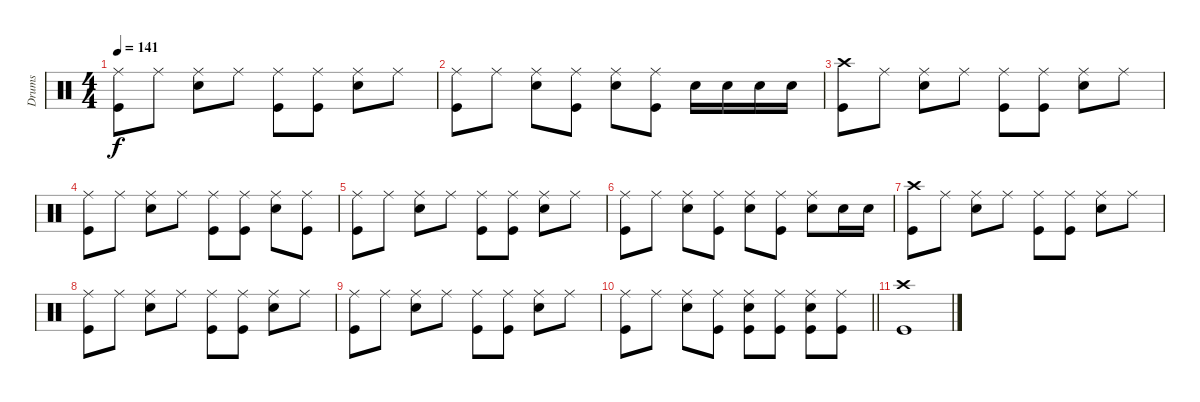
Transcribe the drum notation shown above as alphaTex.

\track ("Drums" "Drums") {instrument percussion}
\staff {score}
\articulation defaults
\ts (4 4)
\tempo 141
\clef neutral
\ks c
("Ride (middle)" "Kick (hit)").8{dy f} "Ride (middle)".8 ("Ride (middle)" "Snare (hit) 2").8 "Ride (middle)".8 ("Ride (middle)" "Kick (hit)").8 ("Ride (middle)" "Kick (hit)").8 ("Ride (middle)" "Snare (hit) 2").8 "Ride (middle)".8 |
("Ride (middle)" "Kick (hit)").8 "Ride (middle)".8 ("Ride (middle)" "Snare (hit) 2").8 ("Ride (middle)" "Kick (hit)").8 ("Ride (middle)" "Snare (hit) 2").8 ("Ride (middle)" "Kick (hit)").8 "Snare (hit) 2".16 "Snare (hit) 2".16 "Snare (hit) 2".16 "Snare (hit) 2".16 |
("Crash high (hit)" "Kick (hit)").8 "Ride (middle)".8 ("Ride (middle)" "Snare (hit) 2").8 "Ride (middle)".8 ("Ride (middle)" "Kick (hit)").8 ("Ride (middle)" "Kick (hit)").8 ("Ride (middle)" "Snare (hit) 2").8 "Ride (middle)".8 |
("Ride (middle)" "Kick (hit)").8 "Ride (middle)".8 ("Ride (middle)" "Snare (hit) 2").8 "Ride (middle)".8 ("Ride (middle)" "Kick (hit)").8 ("Ride (middle)" "Kick (hit)").8 ("Ride (middle)" "Snare (hit) 2").8 ("Ride (middle)" "Kick (hit)").8 |
("Ride (middle)" "Kick (hit)").8 "Ride (middle)".8 ("Ride (middle)" "Snare (hit) 2").8 "Ride (middle)".8 ("Ride (middle)" "Kick (hit)").8 ("Ride (middle)" "Kick (hit)").8 ("Ride (middle)" "Snare (hit) 2").8 "Ride (middle)".8 |
("Ride (middle)" "Kick (hit)").8 "Ride (middle)".8 ("Ride (middle)" "Snare (hit) 2").8 ("Ride (middle)" "Kick (hit)").8 ("Ride (middle)" "Snare (hit) 2").8 ("Ride (middle)" "Kick (hit)").8 ("Ride (middle)" "Snare (hit) 2").8 "Snare (hit) 2".16 "Snare (hit) 2".16 |
("Crash high (hit)" "Kick (hit)").8 "Ride (middle)".8 ("Ride (middle)" "Snare (hit) 2").8 "Ride (middle)".8 ("Ride (middle)" "Kick (hit)").8 ("Ride (middle)" "Kick (hit)").8 ("Ride (middle)" "Snare (hit) 2").8 "Ride (middle)".8 |
("Ride (middle)" "Kick (hit)").8 "Ride (middle)".8 ("Ride (middle)" "Snare (hit) 2").8 "Ride (middle)".8 ("Ride (middle)" "Kick (hit)").8 ("Ride (middle)" "Kick (hit)").8 ("Ride (middle)" "Snare (hit) 2").8 "Ride (middle)".8 |
("Ride (middle)" "Kick (hit)").8 "Ride (middle)".8 ("Ride (middle)" "Snare (hit) 2").8 "Ride (middle)".8 ("Ride (middle)" "Kick (hit)").8 ("Ride (middle)" "Kick (hit)").8 ("Ride (middle)" "Snare (hit) 2").8 "Ride (middle)".8 |
\barLineRight lightlight
("Ride (middle)" "Kick (hit)").8 "Ride (middle)".8 ("Ride (middle)" "Snare (hit) 2").8 ("Ride (middle)" "Kick (hit)").8 ("Ride (middle)" "Snare (hit) 2" "Kick (hit)").8 ("Ride (middle)" "Kick (hit)").8 ("Ride (middle)" "Snare (hit) 2" "Kick (hit)").8 ("Ride (middle)" "Kick (hit)").8 |
("Crash high (hit)" "Kick (hit)").1
